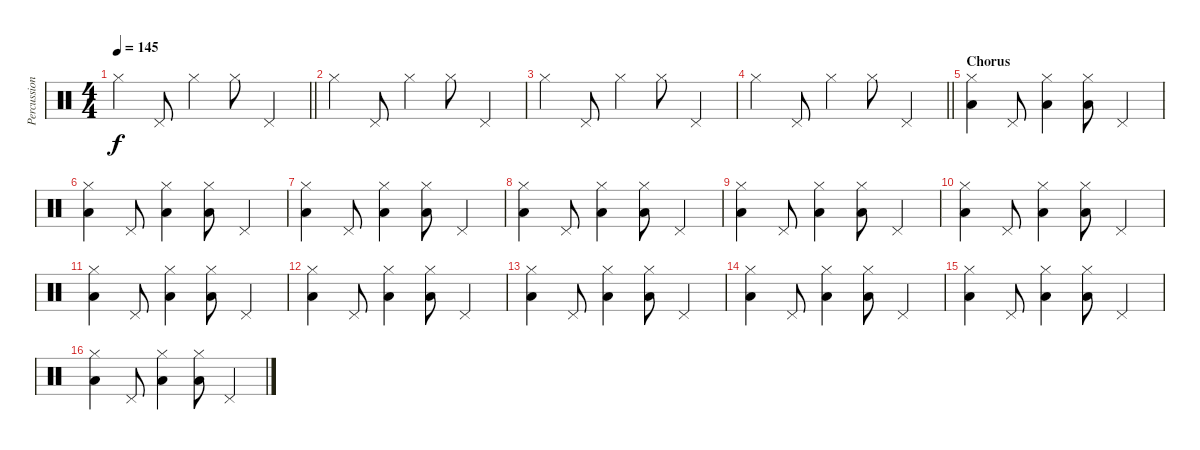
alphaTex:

\track ("Percussion" "Percussion") {instrument percussion}
\staff {score}
\articulation defaults
\ts (4 4)
\tempo 145
\clef neutral
\barLineRight lightlight
\ks c "Hi-Hat (closed)".4{dy f} "Pedal Hi-Hat (hit)".8 "Hi-Hat (closed)".4 "Hi-Hat (closed)".8 "Pedal Hi-Hat (hit)".4
|
"Hi-Hat (closed)".4 "Pedal Hi-Hat (hit)".8 "Hi-Hat (closed)".4 "Hi-Hat (closed)".8 "Pedal Hi-Hat (hit)".4 |
"Hi-Hat (closed)".4 "Pedal Hi-Hat (hit)".8 "Hi-Hat (closed)".4 "Hi-Hat (closed)".8 "Pedal Hi-Hat (hit)".4 |
\barLineRight lightlight "Hi-Hat (closed)".4 "Pedal Hi-Hat (hit)".8 "Hi-Hat (closed)".4 "Hi-Hat (closed)".8 "Pedal Hi-Hat (hit)".4
|
\section ("" "Chorus")
("Hi-Hat (closed)" "Low Floor Tom (hit)").4 "Pedal Hi-Hat (hit)".8 ("Hi-Hat (closed)" "Low Floor Tom (hit)").4 ("Hi-Hat (closed)" "Low Floor Tom (hit)").8 "Pedal Hi-Hat (hit)".4 |
("Hi-Hat (closed)" "Low Floor Tom (hit)").4 "Pedal Hi-Hat (hit)".8 ("Hi-Hat (closed)" "Low Floor Tom (hit)").4 ("Hi-Hat (closed)" "Low Floor Tom (hit)").8 "Pedal Hi-Hat (hit)".4 |
("Hi-Hat (closed)" "Low Floor Tom (hit)").4 "Pedal Hi-Hat (hit)".8 ("Hi-Hat (closed)" "Low Floor Tom (hit)").4 ("Hi-Hat (closed)" "Low Floor Tom (hit)").8 "Pedal Hi-Hat (hit)".4 |
("Hi-Hat (closed)" "Low Floor Tom (hit)").4 "Pedal Hi-Hat (hit)".8 ("Hi-Hat (closed)" "Low Floor Tom (hit)").4 ("Hi-Hat (closed)" "Low Floor Tom (hit)").8 "Pedal Hi-Hat (hit)".4 |
("Hi-Hat (closed)" "Low Floor Tom (hit)").4 "Pedal Hi-Hat (hit)".8 ("Hi-Hat (closed)" "Low Floor Tom (hit)").4 ("Hi-Hat (closed)" "Low Floor Tom (hit)").8 "Pedal Hi-Hat (hit)".4 |
("Hi-Hat (closed)" "Low Floor Tom (hit)").4 "Pedal Hi-Hat (hit)".8 ("Hi-Hat (closed)" "Low Floor Tom (hit)").4 ("Hi-Hat (closed)" "Low Floor Tom (hit)").8 "Pedal Hi-Hat (hit)".4 |
("Hi-Hat (closed)" "Low Floor Tom (hit)").4 "Pedal Hi-Hat (hit)".8 ("Hi-Hat (closed)" "Low Floor Tom (hit)").4 ("Hi-Hat (closed)" "Low Floor Tom (hit)").8 "Pedal Hi-Hat (hit)".4 |
("Hi-Hat (closed)" "Low Floor Tom (hit)").4 "Pedal Hi-Hat (hit)".8 ("Hi-Hat (closed)" "Low Floor Tom (hit)").4 ("Hi-Hat (closed)" "Low Floor Tom (hit)").8 "Pedal Hi-Hat (hit)".4 |
("Hi-Hat (closed)" "Low Floor Tom (hit)").4 "Pedal Hi-Hat (hit)".8 ("Hi-Hat (closed)" "Low Floor Tom (hit)").4 ("Hi-Hat (closed)" "Low Floor Tom (hit)").8 "Pedal Hi-Hat (hit)".4 |
("Hi-Hat (closed)" "Low Floor Tom (hit)").4 "Pedal Hi-Hat (hit)".8 ("Hi-Hat (closed)" "Low Floor Tom (hit)").4 ("Hi-Hat (closed)" "Low Floor Tom (hit)").8 "Pedal Hi-Hat (hit)".4 |
("Hi-Hat (closed)" "Low Floor Tom (hit)").4 "Pedal Hi-Hat (hit)".8 ("Hi-Hat (closed)" "Low Floor Tom (hit)").4 ("Hi-Hat (closed)" "Low Floor Tom (hit)").8 "Pedal Hi-Hat (hit)".4 |
("Hi-Hat (closed)" "Low Floor Tom (hit)").4 "Pedal Hi-Hat (hit)".8 ("Hi-Hat (closed)" "Low Floor Tom (hit)").4 ("Hi-Hat (closed)" "Low Floor Tom (hit)").8 "Pedal Hi-Hat (hit)".4
